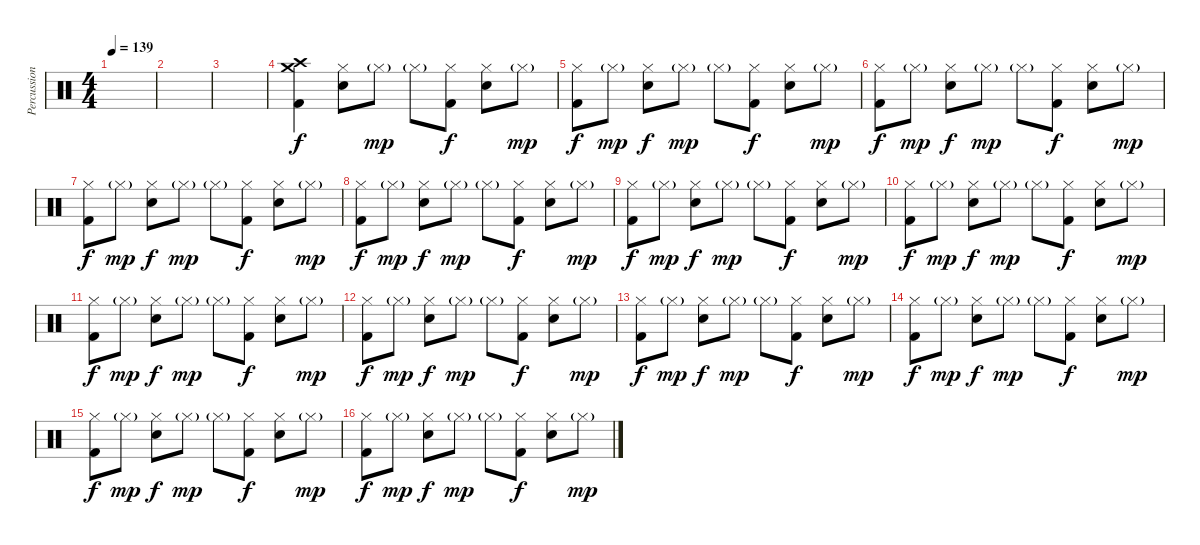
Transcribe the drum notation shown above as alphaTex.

\track ("Percussion" "Percussion") {instrument percussion}
\staff {score}
\articulation defaults
\ts (4 4)
\tempo 139
\clef neutral
\ks c
|
|
|
("Crash high (hit)" "Crash medium (hit)" "Kick (hit) 2").4 ("Hi-Hat (closed)" "Snare (hit) 2").8 "Hi-Hat (closed)"{g}.8{dy mp} "Hi-Hat (closed)"{g}.8 ("Hi-Hat (closed)" "Kick (hit) 2").8{dy f} ("Hi-Hat (closed)" "Snare (hit) 2").8 "Hi-Hat (closed)"{g}.8{dy mp} |
("Hi-Hat (closed)" "Kick (hit) 2").8{dy f} "Hi-Hat (closed)"{g}.8{dy mp} ("Hi-Hat (closed)" "Snare (hit) 2").8{dy f} "Hi-Hat (closed)"{g}.8{dy mp} "Hi-Hat (closed)"{g}.8 ("Hi-Hat (closed)" "Kick (hit) 2").8{dy f} ("Hi-Hat (closed)" "Snare (hit) 2").8 "Hi-Hat (closed)"{g}.8{dy mp} |
("Hi-Hat (closed)" "Kick (hit) 2").8{dy f} "Hi-Hat (closed)"{g}.8{dy mp} ("Hi-Hat (closed)" "Snare (hit) 2").8{dy f} "Hi-Hat (closed)"{g}.8{dy mp} "Hi-Hat (closed)"{g}.8 ("Hi-Hat (closed)" "Kick (hit) 2").8{dy f} ("Hi-Hat (closed)" "Snare (hit) 2").8 "Hi-Hat (closed)"{g}.8{dy mp} |
("Hi-Hat (closed)" "Kick (hit) 2").8{dy f} "Hi-Hat (closed)"{g}.8{dy mp} ("Hi-Hat (closed)" "Snare (hit) 2").8{dy f} "Hi-Hat (closed)"{g}.8{dy mp} "Hi-Hat (closed)"{g}.8 ("Hi-Hat (closed)" "Kick (hit) 2").8{dy f} ("Hi-Hat (closed)" "Snare (hit) 2").8 "Hi-Hat (closed)"{g}.8{dy mp} |
("Hi-Hat (closed)" "Kick (hit) 2").8{dy f} "Hi-Hat (closed)"{g}.8{dy mp} ("Hi-Hat (closed)" "Snare (hit) 2").8{dy f} "Hi-Hat (closed)"{g}.8{dy mp} "Hi-Hat (closed)"{g}.8 ("Hi-Hat (closed)" "Kick (hit) 2").8{dy f} ("Hi-Hat (closed)" "Snare (hit) 2").8 "Hi-Hat (closed)"{g}.8{dy mp} |
("Hi-Hat (closed)" "Kick (hit) 2").8{dy f} "Hi-Hat (closed)"{g}.8{dy mp} ("Hi-Hat (closed)" "Snare (hit) 2").8{dy f} "Hi-Hat (closed)"{g}.8{dy mp} "Hi-Hat (closed)"{g}.8 ("Hi-Hat (closed)" "Kick (hit) 2").8{dy f} ("Hi-Hat (closed)" "Snare (hit) 2").8 "Hi-Hat (closed)"{g}.8{dy mp} |
("Hi-Hat (closed)" "Kick (hit) 2").8{dy f} "Hi-Hat (closed)"{g}.8{dy mp} ("Hi-Hat (closed)" "Snare (hit) 2").8{dy f} "Hi-Hat (closed)"{g}.8{dy mp} "Hi-Hat (closed)"{g}.8 ("Hi-Hat (closed)" "Kick (hit) 2").8{dy f} ("Hi-Hat (closed)" "Snare (hit) 2").8 "Hi-Hat (closed)"{g}.8{dy mp} |
("Hi-Hat (closed)" "Kick (hit) 2").8{dy f} "Hi-Hat (closed)"{g}.8{dy mp} ("Hi-Hat (closed)" "Snare (hit) 2").8{dy f} "Hi-Hat (closed)"{g}.8{dy mp} "Hi-Hat (closed)"{g}.8 ("Hi-Hat (closed)" "Kick (hit) 2").8{dy f} ("Hi-Hat (closed)" "Snare (hit) 2").8 "Hi-Hat (closed)"{g}.8{dy mp} |
("Hi-Hat (closed)" "Kick (hit) 2").8{dy f} "Hi-Hat (closed)"{g}.8{dy mp} ("Hi-Hat (closed)" "Snare (hit) 2").8{dy f} "Hi-Hat (closed)"{g}.8{dy mp} "Hi-Hat (closed)"{g}.8 ("Hi-Hat (closed)" "Kick (hit) 2").8{dy f} ("Hi-Hat (closed)" "Snare (hit) 2").8 "Hi-Hat (closed)"{g}.8{dy mp} |
("Hi-Hat (closed)" "Kick (hit) 2").8{dy f} "Hi-Hat (closed)"{g}.8{dy mp} ("Hi-Hat (closed)" "Snare (hit) 2").8{dy f} "Hi-Hat (closed)"{g}.8{dy mp} "Hi-Hat (closed)"{g}.8 ("Hi-Hat (closed)" "Kick (hit) 2").8{dy f} ("Hi-Hat (closed)" "Snare (hit) 2").8 "Hi-Hat (closed)"{g}.8{dy mp} |
("Hi-Hat (closed)" "Kick (hit) 2").8{dy f} "Hi-Hat (closed)"{g}.8{dy mp} ("Hi-Hat (closed)" "Snare (hit) 2").8{dy f} "Hi-Hat (closed)"{g}.8{dy mp} "Hi-Hat (closed)"{g}.8 ("Hi-Hat (closed)" "Kick (hit) 2").8{dy f} ("Hi-Hat (closed)" "Snare (hit) 2").8 "Hi-Hat (closed)"{g}.8{dy mp} |
("Hi-Hat (closed)" "Kick (hit) 2").8{dy f} "Hi-Hat (closed)"{g}.8{dy mp} ("Hi-Hat (closed)" "Snare (hit) 2").8{dy f} "Hi-Hat (closed)"{g}.8{dy mp} "Hi-Hat (closed)"{g}.8 ("Hi-Hat (closed)" "Kick (hit) 2").8{dy f} ("Hi-Hat (closed)" "Snare (hit) 2").8 "Hi-Hat (closed)"{g}.8{dy mp} |
("Hi-Hat (closed)" "Kick (hit) 2").8{dy f} "Hi-Hat (closed)"{g}.8{dy mp} ("Hi-Hat (closed)" "Snare (hit) 2").8{dy f} "Hi-Hat (closed)"{g}.8{dy mp} "Hi-Hat (closed)"{g}.8 ("Hi-Hat (closed)" "Kick (hit) 2").8{dy f} ("Hi-Hat (closed)" "Snare (hit) 2").8 "Hi-Hat (closed)"{g}.8{dy mp}
